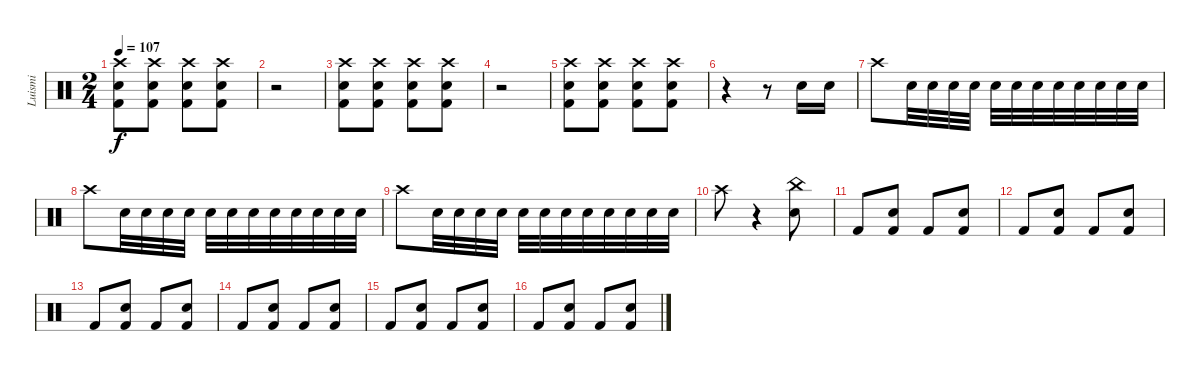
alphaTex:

\track ("Luismi" "Luismi") {instrument percussion}
\staff {score}
\articulation defaults
\ts (2 4)
\tempo 107
\clef neutral
\ks c
("Crash high (hit)" "Snare (hit) 2" "Kick (hit) 2").8{dy f} ("Crash high (hit)" "Snare (hit) 2" "Kick (hit) 2").8 ("Crash high (hit)" "Snare (hit) 2" "Kick (hit) 2").8 ("Crash high (hit)" "Snare (hit) 2" "Kick (hit) 2").8 |
r.2 |
("Crash high (hit)" "Snare (hit) 2" "Kick (hit) 2").8 ("Crash high (hit)" "Snare (hit) 2" "Kick (hit) 2").8 ("Crash high (hit)" "Snare (hit) 2" "Kick (hit) 2").8 ("Crash high (hit)" "Snare (hit) 2" "Kick (hit) 2").8 |
r.2 |
("Crash high (hit)" "Snare (hit) 2" "Kick (hit) 2").8 ("Crash high (hit)" "Snare (hit) 2" "Kick (hit) 2").8 ("Crash high (hit)" "Snare (hit) 2" "Kick (hit) 2").8 ("Crash high (hit)" "Snare (hit) 2" "Kick (hit) 2").8 |
r.4 r.8 "Snare (hit) 2".16 "Snare (hit) 2".16 |
"Crash high (hit)".8 "Snare (hit) 2".32 "Snare (hit) 2".32 "Snare (hit) 2".32 "Snare (hit) 2".32 "Snare (hit) 2".32 "Snare (hit) 2".32 "Snare (hit) 2".32 "Snare (hit) 2".32 "Snare (hit) 2".32 "Snare (hit) 2".32 "Snare (hit) 2".32 "Snare (hit) 2".32 |
"Crash high (hit)".8 "Snare (hit) 2".32 "Snare (hit) 2".32 "Snare (hit) 2".32 "Snare (hit) 2".32 "Snare (hit) 2".32 "Snare (hit) 2".32 "Snare (hit) 2".32 "Snare (hit) 2".32 "Snare (hit) 2".32 "Snare (hit) 2".32 "Snare (hit) 2".32 "Snare (hit) 2".32 |
"Crash high (hit)".8 "Snare (hit) 2".32 "Snare (hit) 2".32 "Snare (hit) 2".32 "Snare (hit) 2".32 "Snare (hit) 2".32 "Snare (hit) 2".32 "Snare (hit) 2".32 "Snare (hit) 2".32 "Snare (hit) 2".32 "Snare (hit) 2".32 "Snare (hit) 2".32 "Snare (hit) 2".32 |
"Crash high (hit)".8 r.4 ("China (hit)" "Snare (hit) 2").8 |
"Kick (hit) 2".8 ("Snare (hit) 2" "Kick (hit) 2").8 "Kick (hit) 2".8 ("Snare (hit) 2" "Kick (hit) 2").8 |
"Kick (hit) 2".8 ("Snare (hit) 2" "Kick (hit) 2").8 "Kick (hit) 2".8 ("Snare (hit) 2" "Kick (hit) 2").8 |
"Kick (hit) 2".8 ("Snare (hit) 2" "Kick (hit) 2").8 "Kick (hit) 2".8 ("Snare (hit) 2" "Kick (hit) 2").8 |
"Kick (hit) 2".8 ("Snare (hit) 2" "Kick (hit) 2").8 "Kick (hit) 2".8 ("Snare (hit) 2" "Kick (hit) 2").8 |
"Kick (hit) 2".8 ("Snare (hit) 2" "Kick (hit) 2").8 "Kick (hit) 2".8 ("Snare (hit) 2" "Kick (hit) 2").8 |
"Kick (hit) 2".8 ("Snare (hit) 2" "Kick (hit) 2").8 "Kick (hit) 2".8 ("Snare (hit) 2" "Kick (hit) 2").8
